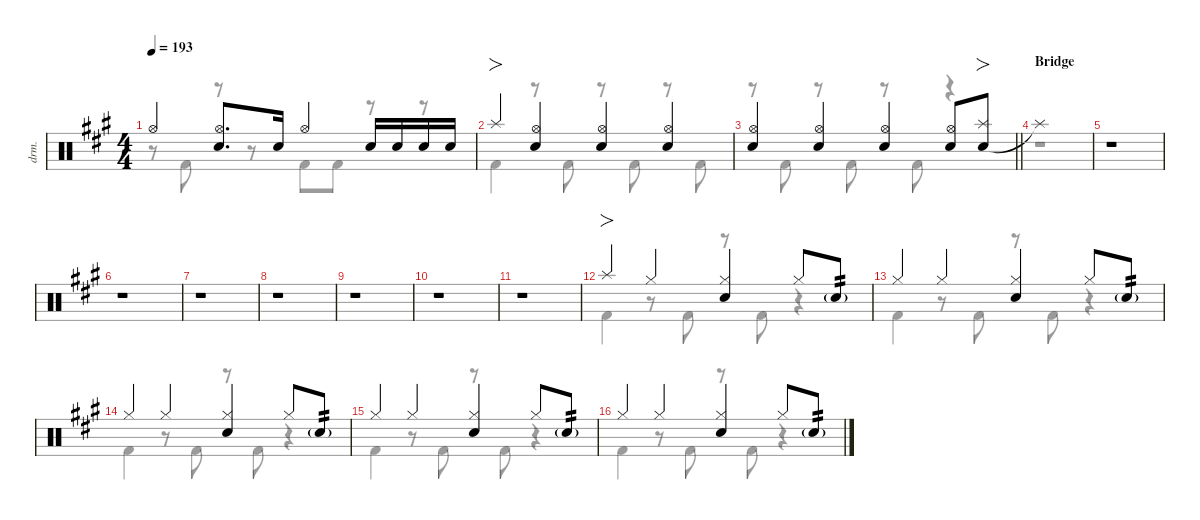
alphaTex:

\defaultSystemsLayout 4
\hideDynamics
\bracketExtendMode nobrackets
\otherSystemsTrackNameOrientation horizontal
\track ("伊地知虹夏" "drm.") {instrument percussion}
\staff {score}
\articulation defaults
\voice
\ts (4 4)
\tempo 193
\clef neutral
\ks a "Hi-Hat (open)"{acc forcenatural}.4{dy mf beam Up}
("Hi-Hat (open)"{acc forcenatural} "Snare (hit) 2"{acc forcenatural}).8{d beam Up} "Snare (hit) 2"{acc forcenatural}.16{beam Up} "Hi-Hat (open)"{acc forcenatural}.4{beam Up} "Snare (hit) 2"{acc forcenatural}.16{beam Up} "Snare (hit) 2"{acc forcenatural}.16{beam Up} "Snare (hit) 2"{acc forcenatural}.16{beam Up} "Snare (hit) 2"{acc forcenatural}.16{beam Up} |
"Splash (hit)"{acc forcenatural}.4{fo beam Up} ("Hi-Hat (open)"{acc forcenatural} "Snare (hit) 2"{acc forcenatural}).4{beam Up} ("Hi-Hat (open)"{acc forcenatural} "Snare (hit) 2"{acc forcenatural}).4{beam Up} ("Hi-Hat (open)"{acc forcenatural} "Snare (hit) 2"{acc forcenatural}).4{beam Up} |
\barLineRight lightlight
("Hi-Hat (open)"{acc forcenatural} "Snare (hit) 2"{acc forcenatural}).4{beam Up} ("Hi-Hat (open)"{acc forcenatural} "Snare (hit) 2"{acc forcenatural}).4{beam Up} ("Hi-Hat (open)"{acc forcenatural} "Snare (hit) 2"{acc forcenatural}).4{beam Up} ("Hi-Hat (open)"{acc forcenatural} "Snare (hit) 2"{acc forcenatural}).8{beam Up} ("Snare (hit) 2"{acc forcenatural} "Splash (hit)"{acc forcenatural}).8{fo beam Up} |
\section ("" "Bridge")
"Splash (hit)"{t acc forcenatural}.1{beam Up} |
r.1{beam Up} |
r.1{beam Up} |
r.1{beam Up} |
r.1{beam Up} |
r.1{beam Up} |
r.1{beam Up} |
r.1{beam Up} |
"Splash (hit)"{acc forcenatural}.4{fo beam Up} "Hi-Hat (closed)"{acc forcenatural}.4{beam Up} ("Hi-Hat (closed)"{acc forcenatural} "Snare (hit) 2"{acc forcenatural}).4{beam Up} "Hi-Hat (closed)"{acc forcenatural}.8{beam Up} "Snare (hit) 2"{g acc forcenatural}.8{tp 2 beam Up} |
"Hi-Hat (closed)"{acc forcenatural}.4{beam Up} "Hi-Hat (closed)"{acc forcenatural}.4{beam Up} ("Hi-Hat (closed)"{acc forcenatural} "Snare (hit) 2"{acc forcenatural}).4{beam Up} "Hi-Hat (closed)"{acc forcenatural}.8{beam Up} "Snare (hit) 2"{g acc forcenatural}.8{tp 2 beam Up} |
"Hi-Hat (closed)"{acc forcenatural}.4{beam Up} "Hi-Hat (closed)"{acc forcenatural}.4{beam Up} ("Hi-Hat (closed)"{acc forcenatural} "Snare (hit) 2"{acc forcenatural}).4{beam Up} "Hi-Hat (closed)"{acc forcenatural}.8{beam Up} "Snare (hit) 2"{g acc forcenatural}.8{tp 2 beam Up} |
"Hi-Hat (closed)"{acc forcenatural}.4{beam Up} "Hi-Hat (closed)"{acc forcenatural}.4{beam Up} ("Hi-Hat (closed)"{acc forcenatural} "Snare (hit) 2"{acc forcenatural}).4{beam Up} "Hi-Hat (closed)"{acc forcenatural}.8{beam Up} "Snare (hit) 2"{g acc forcenatural}.8{tp 2 beam Up} |
"Hi-Hat (closed)"{acc forcenatural}.4{beam Up} "Hi-Hat (closed)"{acc forcenatural}.4{beam Up} ("Hi-Hat (closed)"{acc forcenatural} "Snare (hit) 2"{acc forcenatural}).4{beam Up} "Hi-Hat (closed)"{acc forcenatural}.8{beam Up} "Snare (hit) 2"{g acc forcenatural}.8{tp 2 beam Up}
\voice
\clef neutral
\ottava regular
\simile none
\ks a
r.8{dy mf beam Down} "Kick (hit) 2"{acc forcenatural}.8{beam Down} r.8{beam Down} r.8{beam Down} "Kick (hit) 2"{acc forcenatural}.8{beam Down} "Kick (hit) 2"{acc forcenatural}.8{beam Down} r.8{beam Down} r.8{beam Down} |
"Kick (hit) 2"{acc forcenatural}.4{beam Down} r.8{beam Down} "Kick (hit) 2"{acc forcenatural}.8{beam Down} r.8{beam Down} "Kick (hit) 2"{acc forcenatural}.8{beam Down} r.8{beam Down} "Kick (hit) 2"{acc forcenatural}.8{beam Down} |
\barLineRight lightlight
r.8{beam Down} "Kick (hit) 2"{acc forcenatural}.8{beam Down} r.8{beam Down} "Kick (hit) 2"{acc forcenatural}.8{beam Down} r.8{beam Down} "Kick (hit) 2"{acc forcenatural}.8{beam Down} r.4{beam Down} |
r.1{beam Down} |
r.1{beam Down} |
r.1{beam Down} |
r.1{beam Down} |
r.1{beam Down} |
r.1{beam Down} |
r.1{beam Down} |
r.1{beam Down} |
"Kick (hit) 2"{acc forcenatural}.4{beam Down} r.8{beam Down} "Kick (hit) 2"{acc forcenatural}.8{beam Down} r.8{beam Down} "Kick (hit) 2"{acc forcenatural}.8{beam Down} r.4{beam Down} |
"Kick (hit) 2"{acc forcenatural}.4{beam Down} r.8{beam Down} "Kick (hit) 2"{acc forcenatural}.8{beam Down} r.8{beam Down} "Kick (hit) 2"{acc forcenatural}.8{beam Down} r.4{beam Down} |
"Kick (hit) 2"{acc forcenatural}.4{beam Down} r.8{beam Down} "Kick (hit) 2"{acc forcenatural}.8{beam Down} r.8{beam Down} "Kick (hit) 2"{acc forcenatural}.8{beam Down} r.4{beam Down} |
"Kick (hit) 2"{acc forcenatural}.4{beam Down} r.8{beam Down} "Kick (hit) 2"{acc forcenatural}.8{beam Down} r.8{beam Down} "Kick (hit) 2"{acc forcenatural}.8{beam Down} r.4{beam Down} |
"Kick (hit) 2"{acc forcenatural}.4{beam Down} r.8{beam Down} "Kick (hit) 2"{acc forcenatural}.8{beam Down} r.8{beam Down} "Kick (hit) 2"{acc forcenatural}.8{beam Down} r.4{beam Down}
